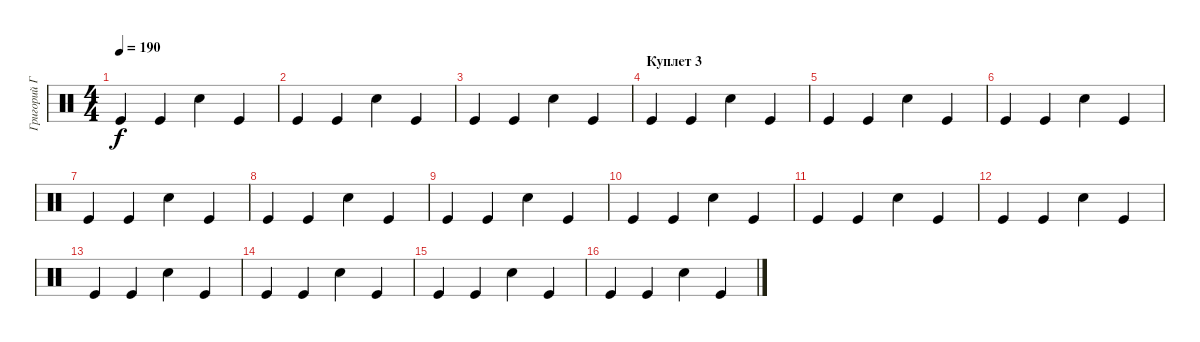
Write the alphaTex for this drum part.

\track ("Григорий Габерман" "Григорий Г") {instrument percussion}
\staff {score}
\articulation defaults
\ts (4 4)
\tempo 190
\clef neutral
\ks c "Kick (hit)".4{dy f} "Kick (hit)".4 "Snare (hit) 2".4 "Kick (hit)".4
|
"Kick (hit)".4 "Kick (hit)".4 "Snare (hit) 2".4 "Kick (hit)".4 |
"Kick (hit)".4 "Kick (hit)".4 "Snare (hit) 2".4 "Kick (hit)".4 |
\section ("" "Куплет 3")
"Kick (hit)".4 "Kick (hit)".4 "Snare (hit) 2".4 "Kick (hit)".4 |
"Kick (hit)".4 "Kick (hit)".4 "Snare (hit) 2".4 "Kick (hit)".4 |
"Kick (hit)".4 "Kick (hit)".4 "Snare (hit) 2".4 "Kick (hit)".4 |
"Kick (hit)".4 "Kick (hit)".4 "Snare (hit) 2".4 "Kick (hit)".4 |
"Kick (hit)".4 "Kick (hit)".4 "Snare (hit) 2".4 "Kick (hit)".4 |
"Kick (hit)".4 "Kick (hit)".4 "Snare (hit) 2".4 "Kick (hit)".4 |
"Kick (hit)".4 "Kick (hit)".4 "Snare (hit) 2".4 "Kick (hit)".4 |
"Kick (hit)".4 "Kick (hit)".4 "Snare (hit) 2".4 "Kick (hit)".4 |
"Kick (hit)".4 "Kick (hit)".4 "Snare (hit) 2".4 "Kick (hit)".4 |
"Kick (hit)".4 "Kick (hit)".4 "Snare (hit) 2".4 "Kick (hit)".4 |
"Kick (hit)".4 "Kick (hit)".4 "Snare (hit) 2".4 "Kick (hit)".4 |
"Kick (hit)".4 "Kick (hit)".4 "Snare (hit) 2".4 "Kick (hit)".4 |
"Kick (hit)".4 "Kick (hit)".4 "Snare (hit) 2".4 "Kick (hit)".4
